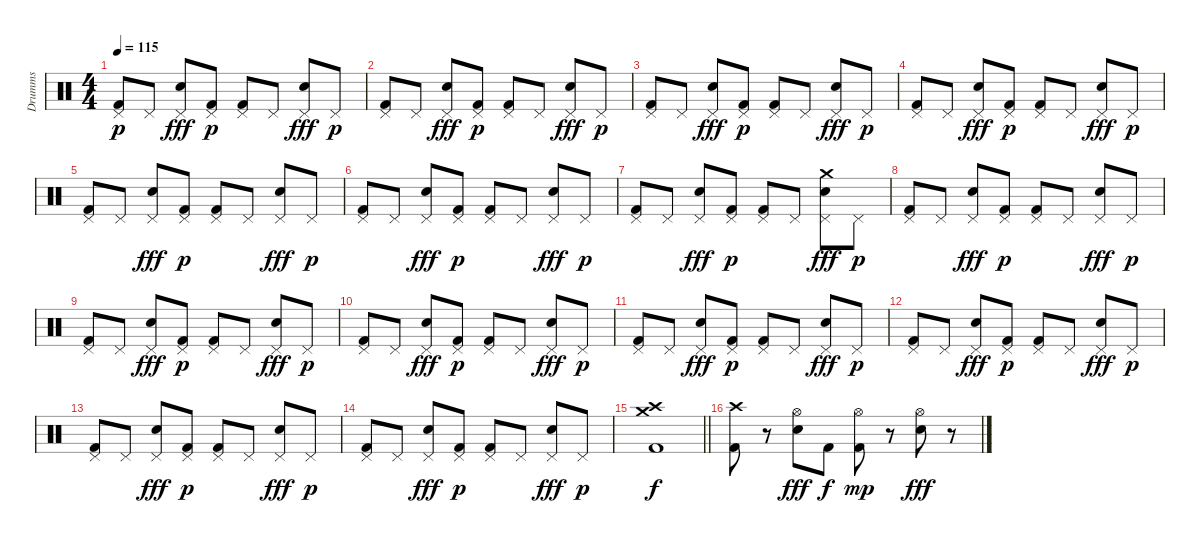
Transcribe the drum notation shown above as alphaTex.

\track ("Drumms" "Drumms") {instrument percussion}
\staff {score}
\articulation defaults
\ts (4 4)
\tempo 115
\clef neutral
\ks c
("Pedal Hi-Hat (hit)" "Kick (hit) 2").8{dy p} "Pedal Hi-Hat (hit)".8 ("Pedal Hi-Hat (hit)" "Snare (hit) 2").8{dy fff} ("Pedal Hi-Hat (hit)" "Kick (hit) 2").8{dy p} ("Pedal Hi-Hat (hit)" "Kick (hit) 2").8 "Pedal Hi-Hat (hit)".8 ("Pedal Hi-Hat (hit)" "Snare (hit) 2").8{dy fff} "Pedal Hi-Hat (hit)".8{dy p} |
("Pedal Hi-Hat (hit)" "Kick (hit) 2").8 "Pedal Hi-Hat (hit)".8 ("Pedal Hi-Hat (hit)" "Snare (hit) 2").8{dy fff} ("Pedal Hi-Hat (hit)" "Kick (hit) 2").8{dy p} ("Pedal Hi-Hat (hit)" "Kick (hit) 2").8 "Pedal Hi-Hat (hit)".8 ("Pedal Hi-Hat (hit)" "Snare (hit) 2").8{dy fff} "Pedal Hi-Hat (hit)".8{dy p} |
("Pedal Hi-Hat (hit)" "Kick (hit) 2").8 "Pedal Hi-Hat (hit)".8 ("Pedal Hi-Hat (hit)" "Snare (hit) 2").8{dy fff} ("Pedal Hi-Hat (hit)" "Kick (hit) 2").8{dy p} ("Pedal Hi-Hat (hit)" "Kick (hit) 2").8 "Pedal Hi-Hat (hit)".8 ("Pedal Hi-Hat (hit)" "Snare (hit) 2").8{dy fff} "Pedal Hi-Hat (hit)".8{dy p} |
("Pedal Hi-Hat (hit)" "Kick (hit) 2").8 "Pedal Hi-Hat (hit)".8 ("Pedal Hi-Hat (hit)" "Snare (hit) 2").8{dy fff} ("Pedal Hi-Hat (hit)" "Kick (hit) 2").8{dy p} ("Pedal Hi-Hat (hit)" "Kick (hit) 2").8 "Pedal Hi-Hat (hit)".8 ("Pedal Hi-Hat (hit)" "Snare (hit) 2").8{dy fff} "Pedal Hi-Hat (hit)".8{dy p} |
("Pedal Hi-Hat (hit)" "Kick (hit) 2").8 "Pedal Hi-Hat (hit)".8 ("Pedal Hi-Hat (hit)" "Snare (hit) 2").8{dy fff} ("Pedal Hi-Hat (hit)" "Kick (hit) 2").8{dy p} ("Pedal Hi-Hat (hit)" "Kick (hit) 2").8 "Pedal Hi-Hat (hit)".8 ("Pedal Hi-Hat (hit)" "Snare (hit) 2").8{dy fff} "Pedal Hi-Hat (hit)".8{dy p} |
("Pedal Hi-Hat (hit)" "Kick (hit) 2").8 "Pedal Hi-Hat (hit)".8 ("Pedal Hi-Hat (hit)" "Snare (hit) 2").8{dy fff} ("Pedal Hi-Hat (hit)" "Kick (hit) 2").8{dy p} ("Pedal Hi-Hat (hit)" "Kick (hit) 2").8 "Pedal Hi-Hat (hit)".8 ("Pedal Hi-Hat (hit)" "Snare (hit) 2").8{dy fff} "Pedal Hi-Hat (hit)".8{dy p} |
("Pedal Hi-Hat (hit)" "Kick (hit) 2").8 "Pedal Hi-Hat (hit)".8 ("Pedal Hi-Hat (hit)" "Snare (hit) 2").8{dy fff} ("Pedal Hi-Hat (hit)" "Kick (hit) 2").8{dy p} ("Pedal Hi-Hat (hit)" "Kick (hit) 2").8 "Pedal Hi-Hat (hit)".8 ("Pedal Hi-Hat (hit)" "Snare (hit) 2" "Crash medium (hit)").8{dy fff} "Pedal Hi-Hat (hit)".8{dy p} |
("Pedal Hi-Hat (hit)" "Kick (hit) 2").8 "Pedal Hi-Hat (hit)".8 ("Pedal Hi-Hat (hit)" "Snare (hit) 2").8{dy fff} ("Pedal Hi-Hat (hit)" "Kick (hit) 2").8{dy p} ("Pedal Hi-Hat (hit)" "Kick (hit) 2").8 "Pedal Hi-Hat (hit)".8 ("Pedal Hi-Hat (hit)" "Snare (hit) 2").8{dy fff} "Pedal Hi-Hat (hit)".8{dy p} |
("Pedal Hi-Hat (hit)" "Kick (hit) 2").8 "Pedal Hi-Hat (hit)".8 ("Pedal Hi-Hat (hit)" "Snare (hit) 2").8{dy fff} ("Pedal Hi-Hat (hit)" "Kick (hit) 2").8{dy p} ("Pedal Hi-Hat (hit)" "Kick (hit) 2").8 "Pedal Hi-Hat (hit)".8 ("Pedal Hi-Hat (hit)" "Snare (hit) 2").8{dy fff} "Pedal Hi-Hat (hit)".8{dy p} |
("Pedal Hi-Hat (hit)" "Kick (hit) 2").8 "Pedal Hi-Hat (hit)".8 ("Pedal Hi-Hat (hit)" "Snare (hit) 2").8{dy fff} ("Pedal Hi-Hat (hit)" "Kick (hit) 2").8{dy p} ("Pedal Hi-Hat (hit)" "Kick (hit) 2").8 "Pedal Hi-Hat (hit)".8 ("Pedal Hi-Hat (hit)" "Snare (hit) 2").8{dy fff} "Pedal Hi-Hat (hit)".8{dy p} |
("Pedal Hi-Hat (hit)" "Kick (hit) 2").8 "Pedal Hi-Hat (hit)".8 ("Pedal Hi-Hat (hit)" "Snare (hit) 2").8{dy fff} ("Pedal Hi-Hat (hit)" "Kick (hit) 2").8{dy p} ("Pedal Hi-Hat (hit)" "Kick (hit) 2").8 "Pedal Hi-Hat (hit)".8 ("Pedal Hi-Hat (hit)" "Snare (hit) 2").8{dy fff} "Pedal Hi-Hat (hit)".8{dy p} |
("Pedal Hi-Hat (hit)" "Kick (hit) 2").8 "Pedal Hi-Hat (hit)".8 ("Pedal Hi-Hat (hit)" "Snare (hit) 2").8{dy fff} ("Pedal Hi-Hat (hit)" "Kick (hit) 2").8{dy p} ("Pedal Hi-Hat (hit)" "Kick (hit) 2").8 "Pedal Hi-Hat (hit)".8 ("Pedal Hi-Hat (hit)" "Snare (hit) 2").8{dy fff} "Pedal Hi-Hat (hit)".8{dy p} |
("Pedal Hi-Hat (hit)" "Kick (hit) 2").8 "Pedal Hi-Hat (hit)".8 ("Pedal Hi-Hat (hit)" "Snare (hit) 2").8{dy fff} ("Pedal Hi-Hat (hit)" "Kick (hit) 2").8{dy p} ("Pedal Hi-Hat (hit)" "Kick (hit) 2").8 "Pedal Hi-Hat (hit)".8 ("Pedal Hi-Hat (hit)" "Snare (hit) 2").8{dy fff} "Pedal Hi-Hat (hit)".8{dy p} |
("Pedal Hi-Hat (hit)" "Kick (hit) 2").8 "Pedal Hi-Hat (hit)".8 ("Pedal Hi-Hat (hit)" "Snare (hit) 2").8{dy fff} ("Pedal Hi-Hat (hit)" "Kick (hit) 2").8{dy p} ("Pedal Hi-Hat (hit)" "Kick (hit) 2").8 "Pedal Hi-Hat (hit)".8 ("Pedal Hi-Hat (hit)" "Snare (hit) 2").8{dy fff} "Pedal Hi-Hat (hit)".8{dy p} |
\barLineRight lightlight
("Crash high (hit)" "Crash medium (hit)" "Kick (hit) 2").1{dy f} |
\section ("" "")
("Crash high (hit)" "Kick (hit) 2").8 r.8 ("Hi-Hat (open)" "Snare (hit) 2").8{dy fff} "Kick (hit) 2".8{dy f} ("Hi-Hat (open)" "Kick (hit) 2").8{dy mp} r.8 ("Hi-Hat (open)" "Snare (hit) 2").8{dy fff} r.8
